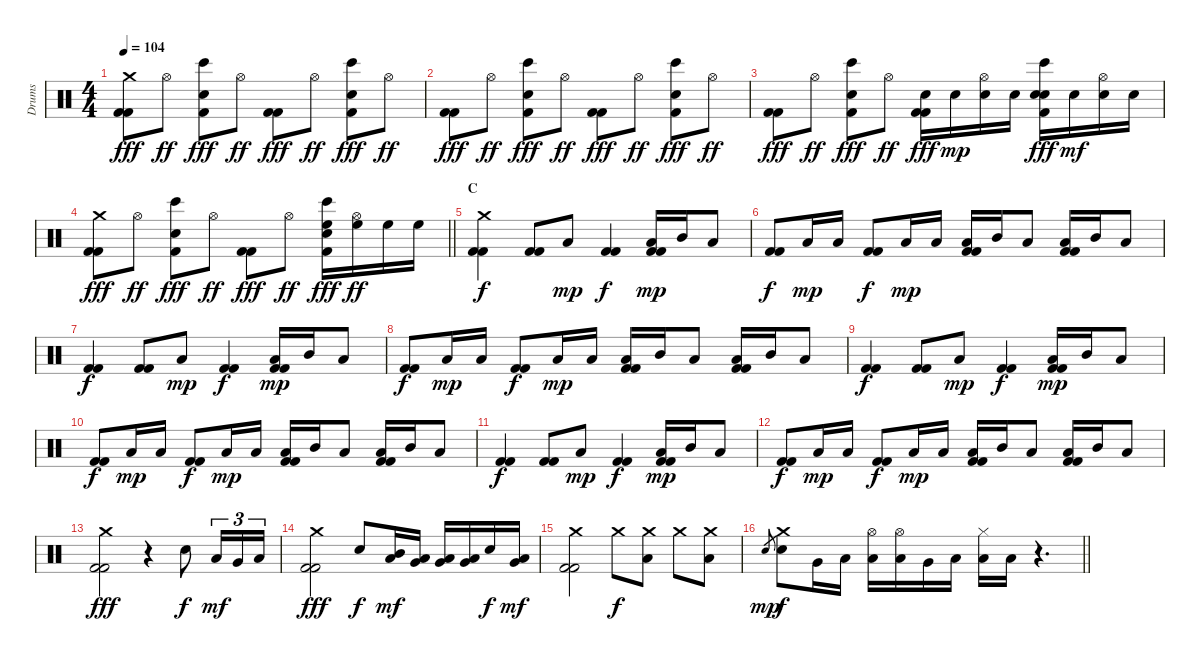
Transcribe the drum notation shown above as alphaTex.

\track ("Drums" "Drums") {instrument percussion}
\staff {score}
\articulation defaults
\ts (4 4)
\tempo 104
\clef neutral
\ks c
("Crash medium (hit)" "Kick (hit) 2" "Kick (hit) 2").8{dy fff} "Hi-Hat (open)".8{dy ff} ("Bongo High (hit)" "Snare (hit) 2" "Kick (hit) 2").8{dy fff} "Hi-Hat (open)".8{dy ff} ("Kick (hit) 2" "Kick (hit) 2").8{dy fff} "Hi-Hat (open)".8{dy ff} ("Bongo High (hit)" "Snare (hit) 2" "Kick (hit) 2").8{dy fff} "Hi-Hat (open)".8{dy ff} |
("Kick (hit) 2" "Kick (hit) 2").8{dy fff} "Hi-Hat (open)".8{dy ff} ("Bongo High (hit)" "Snare (hit) 2" "Kick (hit) 2").8{dy fff} "Hi-Hat (open)".8{dy ff} ("Kick (hit) 2" "Kick (hit) 2").8{dy fff} "Hi-Hat (open)".8{dy ff} ("Bongo High (hit)" "Snare (hit) 2" "Kick (hit) 2").8{dy fff} "Hi-Hat (open)".8{dy ff} |
("Kick (hit) 2" "Kick (hit) 2").8{dy fff} "Hi-Hat (open)".8{dy ff} ("Bongo High (hit)" "Snare (hit) 2" "Kick (hit) 2").8{dy fff} "Hi-Hat (open)".8{dy ff} ("Electric Snare (hit)" "Kick (hit) 2" "Kick (hit) 2").16{dy fff} "Electric Snare (hit)".16{dy mp} ("Hi-Hat (open)" "Electric Snare (hit)").16 "Electric Snare (hit)".16 ("Electric Snare (hit)" "Bongo High (hit)" "Snare (hit) 2" "Kick (hit) 2").16{dy fff} "Electric Snare (hit)".16{dy mf} ("Hi-Hat (open)" "Electric Snare (hit)").16 "Electric Snare (hit)".16 |
\barLineRight lightlight
("Crash medium (hit)" "Kick (hit) 2" "Kick (hit) 2").8{dy fff} "Hi-Hat (open)".8{dy ff} ("Bongo High (hit)" "Snare (hit) 2" "Kick (hit) 2").8{dy fff} "Hi-Hat (open)".8{dy ff} ("Kick (hit) 2" "Kick (hit) 2").8{dy fff} "Hi-Hat (open)".8{dy ff} ("High Floor Tom (hit)" "Bongo High (hit)" "Snare (hit) 2" "Kick (hit) 2").16{dy fff} ("Hi-Hat (open)" "High Floor Tom (hit)").16{dy ff} "High Floor Tom (hit)".16 "High Floor Tom (hit)".16 |
\section ("" "C")
("Crash medium (hit)" "Kick (hit) 2" "Kick (hit) 2").4{dy f} ("Kick (hit) 2" "Kick (hit) 2").8 "Low Tom (hit)".8{dy mp} ("Kick (hit) 2" "Kick (hit) 2").4{dy f} ("Low Tom (hit)" "Kick (hit) 2" "Kick (hit) 2").16{dy mp} "Mid Tom (hit)".16 "Low Tom (hit)".8 |
("Kick (hit) 2" "Kick (hit) 2").8{dy f} "Low Tom (hit)".16{dy mp} "Low Tom (hit)".16 ("Kick (hit) 2" "Kick (hit) 2").8{dy f} "Low Tom (hit)".16{dy mp} "Low Tom (hit)".16 ("Low Tom (hit)" "Kick (hit) 2" "Kick (hit) 2").16 "Mid Tom (hit)".16 "Low Tom (hit)".8 ("Low Tom (hit)" "Kick (hit) 2" "Kick (hit) 2").16 "Mid Tom (hit)".16 "Low Tom (hit)".8 |
("Kick (hit) 2" "Kick (hit) 2").4{dy f} ("Kick (hit) 2" "Kick (hit) 2").8 "Low Tom (hit)".8{dy mp} ("Kick (hit) 2" "Kick (hit) 2").4{dy f} ("Low Tom (hit)" "Kick (hit) 2" "Kick (hit) 2").16{dy mp} "Mid Tom (hit)".16 "Low Tom (hit)".8 |
("Kick (hit) 2" "Kick (hit) 2").8{dy f} "Low Tom (hit)".16{dy mp} "Low Tom (hit)".16 ("Kick (hit) 2" "Kick (hit) 2").8{dy f} "Low Tom (hit)".16{dy mp} "Low Tom (hit)".16 ("Low Tom (hit)" "Kick (hit) 2" "Kick (hit) 2").16 "Mid Tom (hit)".16 "Low Tom (hit)".8 ("Low Tom (hit)" "Kick (hit) 2" "Kick (hit) 2").16 "Mid Tom (hit)".16 "Low Tom (hit)".8 |
("Kick (hit) 2" "Kick (hit) 2").4{dy f} ("Kick (hit) 2" "Kick (hit) 2").8 "Low Tom (hit)".8{dy mp} ("Kick (hit) 2" "Kick (hit) 2").4{dy f} ("Low Tom (hit)" "Kick (hit) 2" "Kick (hit) 2").16{dy mp} "Mid Tom (hit)".16 "Low Tom (hit)".8 |
("Kick (hit) 2" "Kick (hit) 2").8{dy f} "Low Tom (hit)".16{dy mp} "Low Tom (hit)".16 ("Kick (hit) 2" "Kick (hit) 2").8{dy f} "Low Tom (hit)".16{dy mp} "Low Tom (hit)".16 ("Low Tom (hit)" "Kick (hit) 2" "Kick (hit) 2").16 "Mid Tom (hit)".16 "Low Tom (hit)".8 ("Low Tom (hit)" "Kick (hit) 2" "Kick (hit) 2").16 "Mid Tom (hit)".16 "Low Tom (hit)".8 |
("Kick (hit) 2" "Kick (hit) 2").4{dy f} ("Kick (hit) 2" "Kick (hit) 2").8 "Low Tom (hit)".8{dy mp} ("Kick (hit) 2" "Kick (hit) 2").4{dy f} ("Low Tom (hit)" "Kick (hit) 2" "Kick (hit) 2").16{dy mp} "Mid Tom (hit)".16 "Low Tom (hit)".8 |
("Kick (hit) 2" "Kick (hit) 2").8{dy f} "Low Tom (hit)".16{dy mp} "Low Tom (hit)".16 ("Kick (hit) 2" "Kick (hit) 2").8{dy f} "Low Tom (hit)".16{dy mp} "Low Tom (hit)".16 ("Low Tom (hit)" "Kick (hit) 2" "Kick (hit) 2").16 "Mid Tom (hit)".16 "Low Tom (hit)".8 ("Low Tom (hit)" "Kick (hit) 2" "Kick (hit) 2").16 "Mid Tom (hit)".16 "Low Tom (hit)".8 |
("Crash medium (hit)" "Kick (hit) 2" "Kick (hit) 2").2{dy fff} r.4 "Electric Snare (hit)".8{dy f} "Low Tom (hit)".16{tu (3 2) dy mf} "Very Low Tom (hit)".16{tu (3 2)} "Low Floor Tom (hit)".16{tu (3 2)} |
("Crash medium (hit)" "Kick (hit) 2" "Kick (hit) 2").2{dy fff} "Electric Snare (hit)".8{dy f} ("Mid Tom (hit)" "Low Tom (hit)").16{dy mf} ("Low Tom (hit)" "Very Low Tom (hit)").16 ("Very Low Tom (hit)" "Low Floor Tom (hit)").16 ("Very Low Tom (hit)" "Low Floor Tom (hit)").16 "Electric Snare (hit)".16{dy f} ("Low Tom (hit)" "Very Low Tom (hit)").16{dy mf} |
("Crash medium (hit)" "Kick (hit) 2" "Kick (hit) 2").2 "Crash medium (hit)".8{dy f} ("Crash medium (hit)" "Low Tom (hit)").8 "Crash medium (hit)".8 ("Crash medium (hit)" "Low Floor Tom (hit)").8 |
\barLineRight lightlight "Electric Snare (hit)".8{gr dy mp}
("Crash medium (hit)" "Electric Snare (hit)").8{dy f} "Very Low Tom (hit)".16 "Low Floor Tom (hit)".16 ("Hi-Hat (open)" "Low Tom (hit)").16 ("Hi-Hat (open)" "Low Tom (hit)").16 "Very Low Tom (hit)".16 "Low Floor Tom (hit)".16 ("Hi-Hat (closed)" "Low Tom (hit)").16 "Low Tom (hit)".16 r.4{d}
